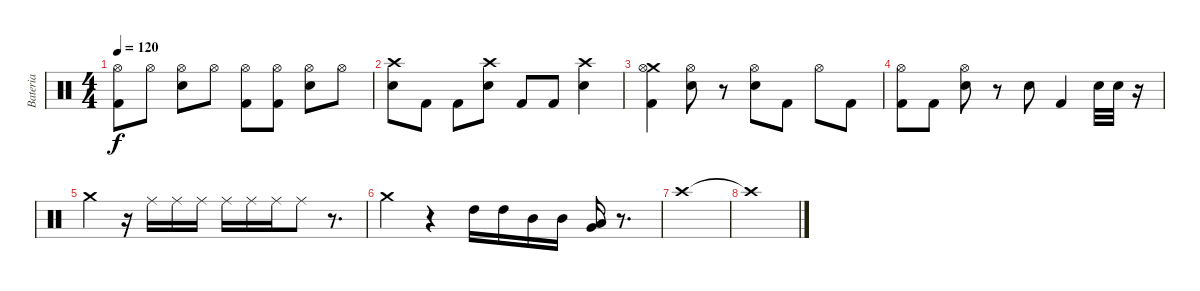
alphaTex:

\track ("Bateria" "Bateria") {instrument percussion}
\staff {score}
\articulation defaults
\ts (4 4)
\tempo 120
\clef neutral
\ks c
("Hi-Hat (open)" "Kick (hit) 2").8{dy f} "Hi-Hat (open)".8 ("Hi-Hat (open)" "Electric Snare (hit)").8 "Hi-Hat (open)".8 ("Hi-Hat (open)" "Kick (hit) 2").8 ("Hi-Hat (open)" "Kick (hit) 2").8 ("Hi-Hat (open)" "Electric Snare (hit)").8 "Hi-Hat (open)".8 |
("Crash high (hit)" "Electric Snare (hit)").8 "Kick (hit) 2".8 "Kick (hit) 2".8 ("Crash high (hit)" "Electric Snare (hit)").8 "Kick (hit) 2".8 "Kick (hit) 2".8 ("Crash high (hit)" "Electric Snare (hit)").4 |
("Crash medium (hit)" "Hi-Hat (open)" "Kick (hit) 2").4 ("Hi-Hat (open)" "Electric Snare (hit)").8 r.8 ("Hi-Hat (open)" "Electric Snare (hit)").8 "Kick (hit) 2".8 "Hi-Hat (open)".8 "Kick (hit) 2".8 |
("Hi-Hat (open)" "Kick (hit) 2").8 "Kick (hit) 2".8 ("Hi-Hat (open)" "Electric Snare (hit)").8 r.8 "Electric Snare (hit)".8 "Kick (hit) 2".4 "Electric Snare (hit)".32 "Electric Snare (hit)".32 r.16 |
"Crash medium (hit)".4 r.16 "Ride (middle)".16 "Ride (middle)".16 "Ride (middle)".16 "Ride (middle)".16 "Ride (middle)".16 "Ride (middle)".16 "Ride (middle)".8 r.8{d} |
"Crash medium (hit)".4 r.4 "High Tom (hit)".16 "High Tom (hit)".16 "Mid Tom (hit)".16 "Mid Tom (hit)".16 ("Low Tom (hit)" "Very Low Tom (hit)").16 r.8{d} |
"Crash high (hit)".1 |
"Crash high (hit)"{t}.1
